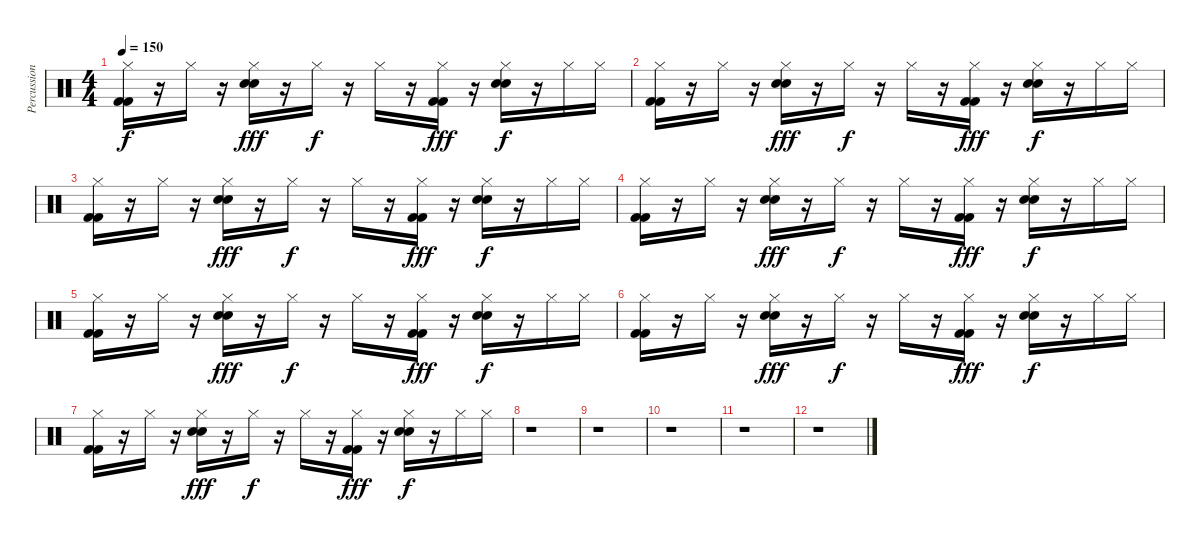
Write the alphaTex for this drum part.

\track ("Percussions" "Percussion") {instrument percussion}
\staff {score}
\articulation defaults
\ts (4 4)
\tempo 150
\clef neutral
\ks c
("Hi-Hat (closed)" "Kick (hit) 2" "Kick (hit) 2").16{dy f} r.16 "Hi-Hat (closed)".16 r.16 ("Hi-Hat (closed)" "Snare (hit) 2" "Electric Snare (hit)").16{dy fff} r.16 "Hi-Hat (closed)".16{dy f} r.16 "Hi-Hat (closed)".16 r.16 ("Hi-Hat (closed)" "Kick (hit) 2" "Kick (hit) 2").16{dy fff} r.16 ("Hi-Hat (closed)" "Snare (hit) 2" "Electric Snare (hit)").16{dy f} r.16 "Hi-Hat (closed)".16 "Hi-Hat (closed)".16 |
("Hi-Hat (closed)" "Kick (hit) 2" "Kick (hit) 2").16 r.16 "Hi-Hat (closed)".16 r.16 ("Hi-Hat (closed)" "Snare (hit) 2" "Electric Snare (hit)").16{dy fff} r.16 "Hi-Hat (closed)".16{dy f} r.16 "Hi-Hat (closed)".16 r.16 ("Hi-Hat (closed)" "Kick (hit) 2" "Kick (hit) 2").16{dy fff} r.16 ("Hi-Hat (closed)" "Snare (hit) 2" "Electric Snare (hit)").16{dy f} r.16 "Hi-Hat (closed)".16 "Hi-Hat (closed)".16 |
("Hi-Hat (closed)" "Kick (hit) 2" "Kick (hit) 2").16 r.16 "Hi-Hat (closed)".16 r.16 ("Hi-Hat (closed)" "Snare (hit) 2" "Electric Snare (hit)").16{dy fff} r.16 "Hi-Hat (closed)".16{dy f} r.16 "Hi-Hat (closed)".16 r.16 ("Hi-Hat (closed)" "Kick (hit) 2" "Kick (hit) 2").16{dy fff} r.16 ("Hi-Hat (closed)" "Snare (hit) 2" "Electric Snare (hit)").16{dy f} r.16 "Hi-Hat (closed)".16 "Hi-Hat (closed)".16 |
("Hi-Hat (closed)" "Kick (hit) 2" "Kick (hit) 2").16 r.16 "Hi-Hat (closed)".16 r.16 ("Hi-Hat (closed)" "Snare (hit) 2" "Electric Snare (hit)").16{dy fff} r.16 "Hi-Hat (closed)".16{dy f} r.16 "Hi-Hat (closed)".16 r.16 ("Hi-Hat (closed)" "Kick (hit) 2" "Kick (hit) 2").16{dy fff} r.16 ("Hi-Hat (closed)" "Snare (hit) 2" "Electric Snare (hit)").16{dy f} r.16 "Hi-Hat (closed)".16 "Hi-Hat (closed)".16 |
("Hi-Hat (closed)" "Kick (hit) 2" "Kick (hit) 2").16 r.16 "Hi-Hat (closed)".16 r.16 ("Hi-Hat (closed)" "Snare (hit) 2" "Electric Snare (hit)").16{dy fff} r.16 "Hi-Hat (closed)".16{dy f} r.16 "Hi-Hat (closed)".16 r.16 ("Hi-Hat (closed)" "Kick (hit) 2" "Kick (hit) 2").16{dy fff} r.16 ("Hi-Hat (closed)" "Snare (hit) 2" "Electric Snare (hit)").16{dy f} r.16 "Hi-Hat (closed)".16 "Hi-Hat (closed)".16 |
("Hi-Hat (closed)" "Kick (hit) 2" "Kick (hit) 2").16 r.16 "Hi-Hat (closed)".16 r.16 ("Hi-Hat (closed)" "Snare (hit) 2" "Electric Snare (hit)").16{dy fff} r.16 "Hi-Hat (closed)".16{dy f} r.16 "Hi-Hat (closed)".16 r.16 ("Hi-Hat (closed)" "Kick (hit) 2" "Kick (hit) 2").16{dy fff} r.16 ("Hi-Hat (closed)" "Snare (hit) 2" "Electric Snare (hit)").16{dy f} r.16 "Hi-Hat (closed)".16 "Hi-Hat (closed)".16 |
("Hi-Hat (closed)" "Kick (hit) 2" "Kick (hit) 2").16 r.16 "Hi-Hat (closed)".16 r.16 ("Hi-Hat (closed)" "Snare (hit) 2" "Electric Snare (hit)").16{dy fff} r.16 "Hi-Hat (closed)".16{dy f} r.16 "Hi-Hat (closed)".16 r.16 ("Hi-Hat (closed)" "Kick (hit) 2" "Kick (hit) 2").16{dy fff} r.16 ("Hi-Hat (closed)" "Snare (hit) 2" "Electric Snare (hit)").16{dy f} r.16 "Hi-Hat (closed)".16 "Hi-Hat (closed)".16 |
r.1 |
r.1 |
r.1 |
r.1 |
r.1
